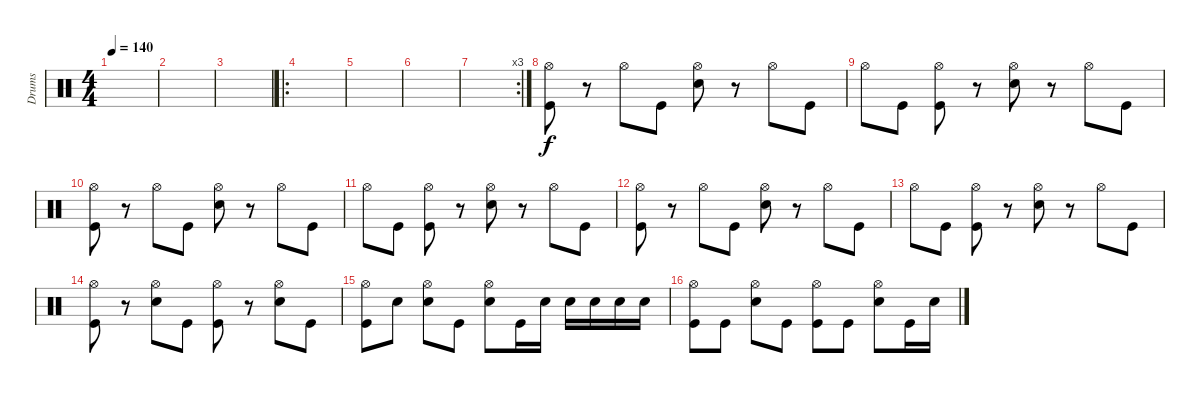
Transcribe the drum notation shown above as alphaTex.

\track ("Drums" "Drums") {instrument percussion}
\staff {score}
\articulation defaults
\ts (4 4)
\tempo 140
\clef neutral
\ks c
|
|
|
\ro
|
|
|
\rc 3
|
("Hi-Hat (open)" "Kick (hit)").8 r.8 "Hi-Hat (open)".8 "Kick (hit)".8 ("Hi-Hat (open)" "Snare (hit) 2").8 r.8 "Hi-Hat (open)".8 "Kick (hit)".8 |
"Hi-Hat (open)".8 "Kick (hit)".8 ("Hi-Hat (open)" "Kick (hit)").8 r.8 ("Hi-Hat (open)" "Snare (hit) 2").8 r.8 "Hi-Hat (open)".8 "Kick (hit)".8 |
("Hi-Hat (open)" "Kick (hit)").8 r.8 "Hi-Hat (open)".8 "Kick (hit)".8 ("Hi-Hat (open)" "Snare (hit) 2").8 r.8 "Hi-Hat (open)".8 "Kick (hit)".8 |
"Hi-Hat (open)".8 "Kick (hit)".8 ("Hi-Hat (open)" "Kick (hit)").8 r.8 ("Hi-Hat (open)" "Snare (hit) 2").8 r.8 "Hi-Hat (open)".8 "Kick (hit)".8 |
("Hi-Hat (open)" "Kick (hit)").8 r.8 "Hi-Hat (open)".8 "Kick (hit)".8 ("Hi-Hat (open)" "Snare (hit) 2").8 r.8 "Hi-Hat (open)".8 "Kick (hit)".8 |
"Hi-Hat (open)".8 "Kick (hit)".8 ("Hi-Hat (open)" "Kick (hit)").8 r.8 ("Hi-Hat (open)" "Snare (hit) 2").8 r.8 "Hi-Hat (open)".8 "Kick (hit)".8 |
("Hi-Hat (open)" "Kick (hit)").8 r.8 ("Hi-Hat (open)" "Snare (hit) 2").8 "Kick (hit)".8 ("Hi-Hat (open)" "Kick (hit)").8 r.8 ("Hi-Hat (open)" "Snare (hit) 2").8 "Kick (hit)".8 |
("Hi-Hat (open)" "Kick (hit)").8 "Snare (hit) 2".8 ("Hi-Hat (open)" "Snare (hit) 2").8 "Kick (hit)".8 ("Hi-Hat (open)" "Snare (hit) 2").8 "Kick (hit)".16 "Snare (hit) 2".16 "Snare (hit) 2".16 "Snare (hit) 2".16 "Snare (hit) 2".16 "Snare (hit) 2".16 |
("Hi-Hat (open)" "Kick (hit)").8 "Kick (hit)".8 ("Hi-Hat (open)" "Snare (hit) 2").8 "Kick (hit)".8 ("Hi-Hat (open)" "Kick (hit)").8 "Kick (hit)".8 ("Hi-Hat (open)" "Snare (hit) 2").8 "Kick (hit)".16 "Snare (hit) 2".16
